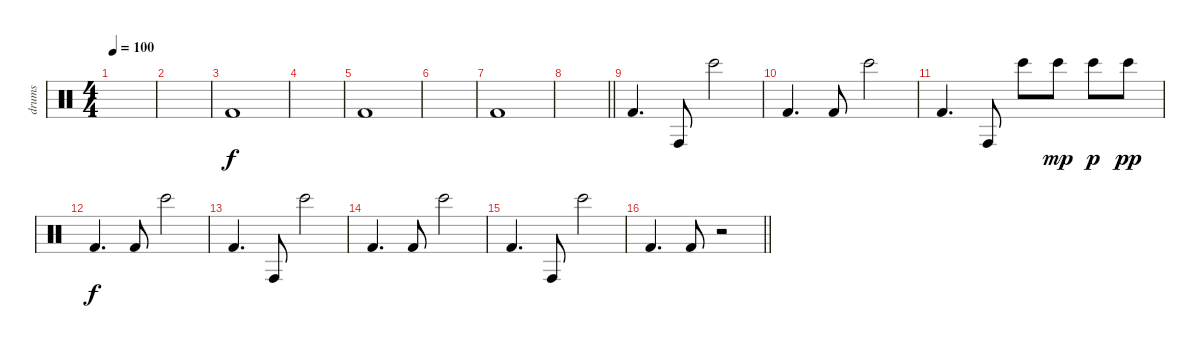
\track ("drums" "drums") {instrument percussion}
\staff {score}
\articulation defaults
\ts (4 4)
\tempo 100
\clef neutral
\ks c
|
|
"Kick (hit) 2".1 |
|
"Kick (hit) 2".1 |
|
"Kick (hit) 2".1 |
\barLineRight lightlight
|
"Kick (hit) 2".4{d} "Conga high (hit)".8 "Bongo High (hit)".2 |
"Kick (hit) 2".4{d} "Kick (hit) 2".8 "Bongo High (hit)".2 |
"Kick (hit) 2".4{d} "Conga high (hit)".8 "Bongo High (hit)".8 "Bongo High (hit)".8{dy mp} "Bongo High (hit)".8{dy p} "Bongo High (hit)".8{dy pp} |
"Kick (hit) 2".4{d dy f} "Kick (hit) 2".8 "Bongo High (hit)".2 |
"Kick (hit) 2".4{d} "Conga high (hit)".8 "Bongo High (hit)".2 |
"Kick (hit) 2".4{d} "Kick (hit) 2".8 "Bongo High (hit)".2 |
"Kick (hit) 2".4{d} "Conga high (hit)".8 "Bongo High (hit)".2 |
\barLineRight lightlight "Kick (hit) 2".4{d} "Kick (hit) 2".8
r.2
